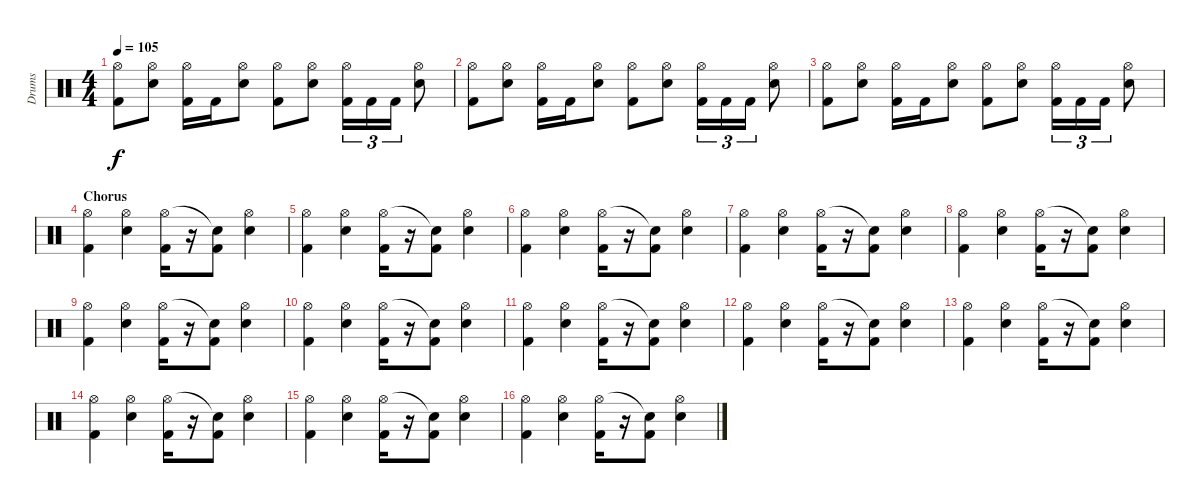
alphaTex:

\track ("Drums" "Drums") {instrument percussion}
\staff {score}
\articulation defaults
\ts (4 4)
\tempo 105
\clef neutral
\ks c
("Hi-Hat (open)" "Kick (hit) 2").8{dy f} ("Hi-Hat (open)" "Electric Snare (hit)").8 ("Hi-Hat (open)" "Kick (hit) 2").16 "Kick (hit) 2".16 ("Hi-Hat (open)" "Electric Snare (hit)").8 ("Hi-Hat (open)" "Kick (hit) 2").8 ("Hi-Hat (open)" "Electric Snare (hit)").8 ("Hi-Hat (open)" "Kick (hit) 2").16{tu (3 2)} "Kick (hit) 2".16{tu (3 2)} "Kick (hit) 2".16{tu (3 2)} ("Hi-Hat (open)" "Electric Snare (hit)").8 |
("Hi-Hat (open)" "Kick (hit) 2").8 ("Hi-Hat (open)" "Electric Snare (hit)").8 ("Hi-Hat (open)" "Kick (hit) 2").16 "Kick (hit) 2".16 ("Hi-Hat (open)" "Electric Snare (hit)").8 ("Hi-Hat (open)" "Kick (hit) 2").8 ("Hi-Hat (open)" "Electric Snare (hit)").8 ("Hi-Hat (open)" "Kick (hit) 2").16{tu (3 2)} "Kick (hit) 2".16{tu (3 2)} "Kick (hit) 2".16{tu (3 2)} ("Hi-Hat (open)" "Electric Snare (hit)").8 |
("Hi-Hat (open)" "Kick (hit) 2").8 ("Hi-Hat (open)" "Electric Snare (hit)").8 ("Hi-Hat (open)" "Kick (hit) 2").16 "Kick (hit) 2".16 ("Hi-Hat (open)" "Electric Snare (hit)").8 ("Hi-Hat (open)" "Kick (hit) 2").8 ("Hi-Hat (open)" "Electric Snare (hit)").8 ("Hi-Hat (open)" "Kick (hit) 2").16{tu (3 2)} "Kick (hit) 2".16{tu (3 2)} "Kick (hit) 2".16{tu (3 2)} ("Hi-Hat (open)" "Electric Snare (hit)").8 |
\section ("" "Chorus")
("Hi-Hat (open)" "Kick (hit) 2").4 ("Hi-Hat (open)" "Electric Snare (hit)").4 ("Hi-Hat (open)" "Kick (hit) 2").16 r.16 ("Snare (hit)"{t} "Kick (hit) 2").8 ("Hi-Hat (open)" "Electric Snare (hit)").4 |
("Hi-Hat (open)" "Kick (hit) 2").4 ("Hi-Hat (open)" "Electric Snare (hit)").4 ("Hi-Hat (open)" "Kick (hit) 2").16 r.16 ("Snare (hit)"{t} "Kick (hit) 2").8 ("Hi-Hat (open)" "Electric Snare (hit)").4 |
("Hi-Hat (open)" "Kick (hit) 2").4 ("Hi-Hat (open)" "Electric Snare (hit)").4 ("Hi-Hat (open)" "Kick (hit) 2").16 r.16 ("Snare (hit)"{t} "Kick (hit) 2").8 ("Hi-Hat (open)" "Electric Snare (hit)").4 |
("Hi-Hat (open)" "Kick (hit) 2").4 ("Hi-Hat (open)" "Electric Snare (hit)").4 ("Hi-Hat (open)" "Kick (hit) 2").16 r.16 ("Snare (hit)"{t} "Kick (hit) 2").8 ("Hi-Hat (open)" "Electric Snare (hit)").4 |
("Hi-Hat (open)" "Kick (hit) 2").4 ("Hi-Hat (open)" "Electric Snare (hit)").4 ("Hi-Hat (open)" "Kick (hit) 2").16 r.16 ("Snare (hit)"{t} "Kick (hit) 2").8 ("Hi-Hat (open)" "Electric Snare (hit)").4 |
("Hi-Hat (open)" "Kick (hit) 2").4 ("Hi-Hat (open)" "Electric Snare (hit)").4 ("Hi-Hat (open)" "Kick (hit) 2").16 r.16 ("Snare (hit)"{t} "Kick (hit) 2").8 ("Hi-Hat (open)" "Electric Snare (hit)").4 |
("Hi-Hat (open)" "Kick (hit) 2").4 ("Hi-Hat (open)" "Electric Snare (hit)").4 ("Hi-Hat (open)" "Kick (hit) 2").16 r.16 ("Snare (hit)"{t} "Kick (hit) 2").8 ("Hi-Hat (open)" "Electric Snare (hit)").4 |
("Hi-Hat (open)" "Kick (hit) 2").4 ("Hi-Hat (open)" "Electric Snare (hit)").4 ("Hi-Hat (open)" "Kick (hit) 2").16 r.16 ("Snare (hit)"{t} "Kick (hit) 2").8 ("Hi-Hat (open)" "Electric Snare (hit)").4 |
("Hi-Hat (open)" "Kick (hit) 2").4 ("Hi-Hat (open)" "Electric Snare (hit)").4 ("Hi-Hat (open)" "Kick (hit) 2").16 r.16 ("Snare (hit)"{t} "Kick (hit) 2").8 ("Hi-Hat (open)" "Electric Snare (hit)").4 |
("Hi-Hat (open)" "Kick (hit) 2").4 ("Hi-Hat (open)" "Electric Snare (hit)").4 ("Hi-Hat (open)" "Kick (hit) 2").16 r.16 ("Snare (hit)"{t} "Kick (hit) 2").8 ("Hi-Hat (open)" "Electric Snare (hit)").4 |
("Hi-Hat (open)" "Kick (hit) 2").4 ("Hi-Hat (open)" "Electric Snare (hit)").4 ("Hi-Hat (open)" "Kick (hit) 2").16 r.16 ("Snare (hit)"{t} "Kick (hit) 2").8 ("Hi-Hat (open)" "Electric Snare (hit)").4 |
("Hi-Hat (open)" "Kick (hit) 2").4 ("Hi-Hat (open)" "Electric Snare (hit)").4 ("Hi-Hat (open)" "Kick (hit) 2").16 r.16 ("Snare (hit)"{t} "Kick (hit) 2").8 ("Hi-Hat (open)" "Electric Snare (hit)").4 |
("Hi-Hat (open)" "Kick (hit) 2").4 ("Hi-Hat (open)" "Electric Snare (hit)").4 ("Hi-Hat (open)" "Kick (hit) 2").16 r.16 ("Snare (hit)"{t} "Kick (hit) 2").8 ("Hi-Hat (open)" "Electric Snare (hit)").4
